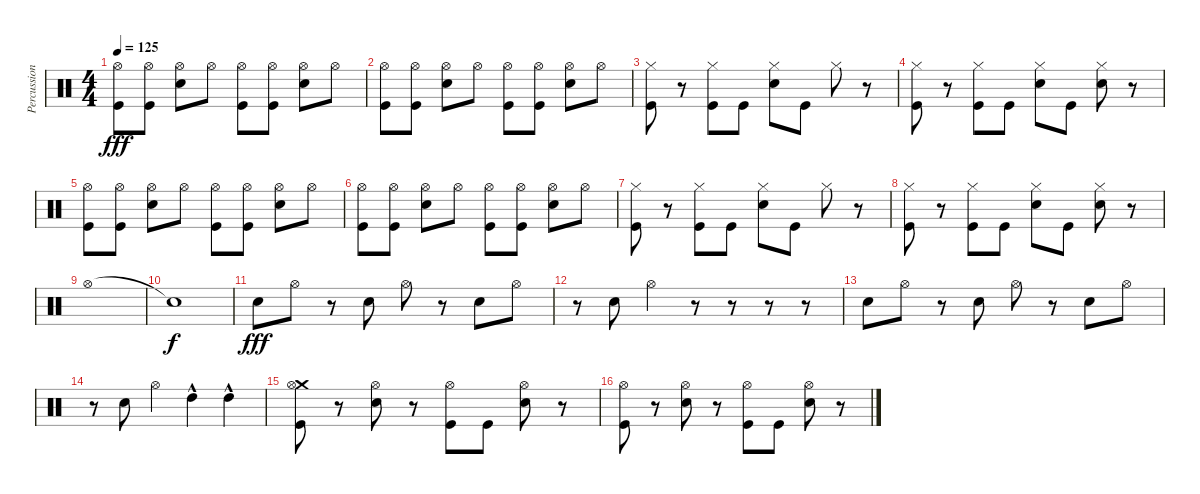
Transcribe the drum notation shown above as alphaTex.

\track ("Percussion" "Percussion") {instrument percussion}
\staff {score}
\articulation defaults
\ts (4 4)
\tempo 125
\clef neutral
\ks c
("Kick (hit)" "Hi-Hat (open)").8{dy fff} ("Kick (hit)" "Hi-Hat (open)").8 ("Snare (hit) 2" "Hi-Hat (open)").8 "Hi-Hat (open)".8 ("Kick (hit)" "Hi-Hat (open)").8 ("Kick (hit)" "Hi-Hat (open)").8 ("Snare (hit) 2" "Hi-Hat (open)").8 "Hi-Hat (open)".8 |
("Kick (hit)" "Hi-Hat (open)").8 ("Kick (hit)" "Hi-Hat (open)").8 ("Snare (hit) 2" "Hi-Hat (open)").8 "Hi-Hat (open)".8 ("Kick (hit)" "Hi-Hat (open)").8 ("Kick (hit)" "Hi-Hat (open)").8 ("Snare (hit) 2" "Hi-Hat (open)").8 "Hi-Hat (open)".8 |
("Kick (hit)" "Hi-Hat (closed)").8 r.8 ("Kick (hit)" "Hi-Hat (closed)").8 "Kick (hit)".8 ("Snare (hit) 2" "Hi-Hat (closed)").8 "Kick (hit)".8 "Hi-Hat (closed)".8 r.8 |
("Kick (hit)" "Hi-Hat (closed)").8 r.8 ("Kick (hit)" "Hi-Hat (closed)").8 "Kick (hit)".8 ("Snare (hit) 2" "Hi-Hat (closed)").8 "Kick (hit)".8 ("Snare (hit) 2" "Hi-Hat (closed)").8 r.8 |
("Kick (hit)" "Hi-Hat (open)").8 ("Kick (hit)" "Hi-Hat (open)").8 ("Snare (hit) 2" "Hi-Hat (open)").8 "Hi-Hat (open)".8 ("Kick (hit)" "Hi-Hat (open)").8 ("Kick (hit)" "Hi-Hat (open)").8 ("Snare (hit) 2" "Hi-Hat (open)").8 "Hi-Hat (open)".8 |
("Kick (hit)" "Hi-Hat (open)").8 ("Kick (hit)" "Hi-Hat (open)").8 ("Snare (hit) 2" "Hi-Hat (open)").8 "Hi-Hat (open)".8 ("Kick (hit)" "Hi-Hat (open)").8 ("Kick (hit)" "Hi-Hat (open)").8 ("Snare (hit) 2" "Hi-Hat (open)").8 "Hi-Hat (open)".8 |
("Kick (hit)" "Hi-Hat (closed)").8 r.8 ("Kick (hit)" "Hi-Hat (closed)").8 "Kick (hit)".8 ("Snare (hit) 2" "Hi-Hat (closed)").8 "Kick (hit)".8 "Hi-Hat (closed)".8 r.8 |
("Kick (hit)" "Hi-Hat (closed)").8 r.8 ("Kick (hit)" "Hi-Hat (closed)").8 "Kick (hit)".8 ("Snare (hit) 2" "Hi-Hat (closed)").8 "Kick (hit)".8 ("Snare (hit) 2" "Hi-Hat (closed)").8 r.8 |
"Hi-Hat (open)".1 |
"Snare (hit)"{t}.1{dy f} |
"Snare (hit) 2".8{dy fff} "Hi-Hat (open)".8 r.8 "Snare (hit) 2".8 "Hi-Hat (open)".8 r.8 "Snare (hit) 2".8 "Hi-Hat (open)".8 |
r.8 "Snare (hit) 2".8 "Hi-Hat (open)".4 r.8 r.8 r.8 r.8 |
"Snare (hit) 2".8 "Hi-Hat (open)".8 r.8 "Snare (hit) 2".8 "Hi-Hat (open)".8 r.8 "Snare (hit) 2".8 "Hi-Hat (open)".8 |
r.8 "Snare (hit) 2".8 "Hi-Hat (open)".4 "High Tom (hit)"{hac}.4 "High Tom (hit)"{hac}.4 |
("Crash medium (hit)" "Hi-Hat (open)" "Kick (hit)").8 r.8 ("Snare (hit) 2" "Hi-Hat (open)").8 r.8 ("Hi-Hat (open)" "Kick (hit)").8 "Kick (hit)".8 ("Snare (hit) 2" "Hi-Hat (open)").8 r.8 |
("Hi-Hat (open)" "Kick (hit)").8 r.8 ("Snare (hit) 2" "Hi-Hat (open)").8 r.8 ("Hi-Hat (open)" "Kick (hit)").8 "Kick (hit)".8 ("Snare (hit) 2" "Hi-Hat (open)").8 r.8
